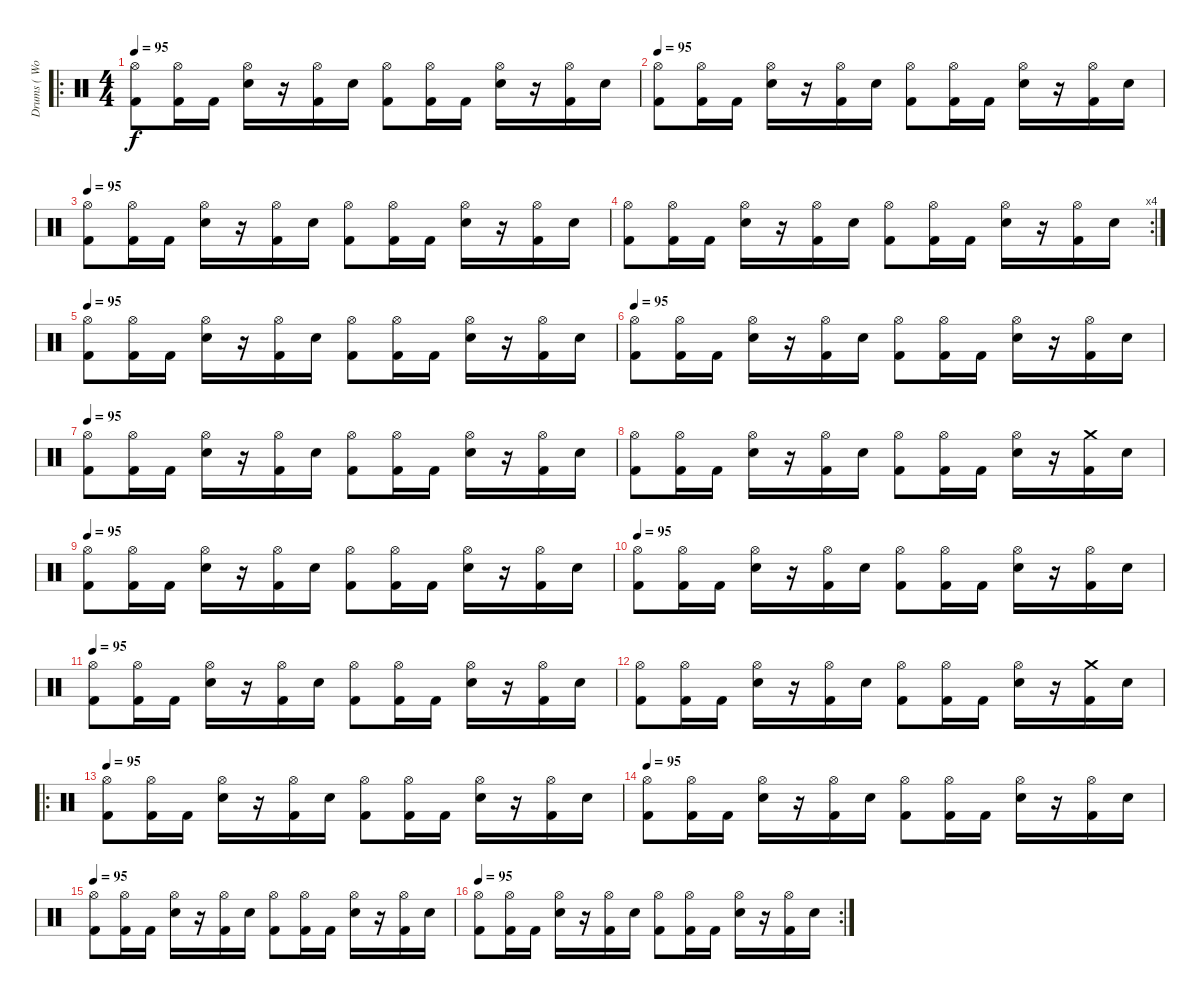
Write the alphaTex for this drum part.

\track ("Drums ( Wolf Simons)" "Drums ( Wo") {instrument percussion}
\staff {score}
\articulation defaults
\ro
\ts (4 4)
\tempo 95
\clef neutral
\ks c
("Kick (hit) 2" "Hi-Hat (open)").8{dy f} ("Kick (hit) 2" "Hi-Hat (open)").16 "Kick (hit) 2".16 ("Electric Snare (hit)" "Hi-Hat (open)").16 r.16 ("Kick (hit) 2" "Hi-Hat (open)").16 "Electric Snare (hit)".16 ("Kick (hit) 2" "Hi-Hat (open)").8 ("Kick (hit) 2" "Hi-Hat (open)").16 "Kick (hit) 2".16 ("Electric Snare (hit)" "Hi-Hat (open)").16 r.16 ("Kick (hit) 2" "Hi-Hat (open)").16 "Electric Snare (hit)".16 |
\tempo 95
("Kick (hit) 2" "Hi-Hat (open)").8 ("Kick (hit) 2" "Hi-Hat (open)").16 "Kick (hit) 2".16 ("Electric Snare (hit)" "Hi-Hat (open)").16 r.16 ("Kick (hit) 2" "Hi-Hat (open)").16 "Electric Snare (hit)".16 ("Kick (hit) 2" "Hi-Hat (open)").8 ("Kick (hit) 2" "Hi-Hat (open)").16 "Kick (hit) 2".16 ("Electric Snare (hit)" "Hi-Hat (open)").16 r.16 ("Kick (hit) 2" "Hi-Hat (open)").16 "Electric Snare (hit)".16 |
\tempo 95
("Kick (hit) 2" "Hi-Hat (open)").8 ("Kick (hit) 2" "Hi-Hat (open)").16 "Kick (hit) 2".16 ("Electric Snare (hit)" "Hi-Hat (open)").16 r.16 ("Kick (hit) 2" "Hi-Hat (open)").16 "Electric Snare (hit)".16 ("Kick (hit) 2" "Hi-Hat (open)").8 ("Kick (hit) 2" "Hi-Hat (open)").16 "Kick (hit) 2".16 ("Electric Snare (hit)" "Hi-Hat (open)").16 r.16 ("Kick (hit) 2" "Hi-Hat (open)").16 "Electric Snare (hit)".16 |
\rc 4
("Kick (hit) 2" "Hi-Hat (open)").8 ("Kick (hit) 2" "Hi-Hat (open)").16 "Kick (hit) 2".16 ("Electric Snare (hit)" "Hi-Hat (open)").16 r.16 ("Kick (hit) 2" "Hi-Hat (open)").16 "Electric Snare (hit)".16 ("Kick (hit) 2" "Hi-Hat (open)").8 ("Kick (hit) 2" "Hi-Hat (open)").16 "Kick (hit) 2".16 ("Electric Snare (hit)" "Hi-Hat (open)").16 r.16 ("Kick (hit) 2" "Hi-Hat (open)").16 "Electric Snare (hit)".16 |
\tempo 95
("Kick (hit) 2" "Hi-Hat (open)").8 ("Kick (hit) 2" "Hi-Hat (open)").16 "Kick (hit) 2".16 ("Electric Snare (hit)" "Hi-Hat (open)").16 r.16 ("Kick (hit) 2" "Hi-Hat (open)").16 "Electric Snare (hit)".16 ("Kick (hit) 2" "Hi-Hat (open)").8 ("Kick (hit) 2" "Hi-Hat (open)").16 "Kick (hit) 2".16 ("Electric Snare (hit)" "Hi-Hat (open)").16 r.16 ("Kick (hit) 2" "Hi-Hat (open)").16 "Electric Snare (hit)".16 |
\tempo 95
("Kick (hit) 2" "Hi-Hat (open)").8 ("Kick (hit) 2" "Hi-Hat (open)").16 "Kick (hit) 2".16 ("Electric Snare (hit)" "Hi-Hat (open)").16 r.16 ("Kick (hit) 2" "Hi-Hat (open)").16 "Electric Snare (hit)".16 ("Kick (hit) 2" "Hi-Hat (open)").8 ("Kick (hit) 2" "Hi-Hat (open)").16 "Kick (hit) 2".16 ("Electric Snare (hit)" "Hi-Hat (open)").16 r.16 ("Kick (hit) 2" "Hi-Hat (open)").16 "Electric Snare (hit)".16 |
\tempo 95
("Kick (hit) 2" "Hi-Hat (open)").8 ("Kick (hit) 2" "Hi-Hat (open)").16 "Kick (hit) 2".16 ("Electric Snare (hit)" "Hi-Hat (open)").16 r.16 ("Kick (hit) 2" "Hi-Hat (open)").16 "Electric Snare (hit)".16 ("Kick (hit) 2" "Hi-Hat (open)").8 ("Kick (hit) 2" "Hi-Hat (open)").16 "Kick (hit) 2".16 ("Electric Snare (hit)" "Hi-Hat (open)").16 r.16 ("Kick (hit) 2" "Hi-Hat (open)").16 "Electric Snare (hit)".16 |
("Kick (hit) 2" "Hi-Hat (open)").8 ("Kick (hit) 2" "Hi-Hat (open)").16 "Kick (hit) 2".16 ("Electric Snare (hit)" "Hi-Hat (open)").16 r.16 ("Kick (hit) 2" "Hi-Hat (open)").16 "Electric Snare (hit)".16 ("Kick (hit) 2" "Hi-Hat (open)").8 ("Kick (hit) 2" "Hi-Hat (open)").16 "Kick (hit) 2".16 ("Electric Snare (hit)" "Hi-Hat (open)").16 r.16 ("Kick (hit) 2" "Crash medium (hit)").16 "Electric Snare (hit)".16 |
\tempo 95
("Kick (hit) 2" "Hi-Hat (open)").8 ("Kick (hit) 2" "Hi-Hat (open)").16 "Kick (hit) 2".16 ("Electric Snare (hit)" "Hi-Hat (open)").16 r.16 ("Kick (hit) 2" "Hi-Hat (open)").16 "Electric Snare (hit)".16 ("Kick (hit) 2" "Hi-Hat (open)").8 ("Kick (hit) 2" "Hi-Hat (open)").16 "Kick (hit) 2".16 ("Electric Snare (hit)" "Hi-Hat (open)").16 r.16 ("Kick (hit) 2" "Hi-Hat (open)").16 "Electric Snare (hit)".16 |
\tempo 95
("Kick (hit) 2" "Hi-Hat (open)").8 ("Kick (hit) 2" "Hi-Hat (open)").16 "Kick (hit) 2".16 ("Electric Snare (hit)" "Hi-Hat (open)").16 r.16 ("Kick (hit) 2" "Hi-Hat (open)").16 "Electric Snare (hit)".16 ("Kick (hit) 2" "Hi-Hat (open)").8 ("Kick (hit) 2" "Hi-Hat (open)").16 "Kick (hit) 2".16 ("Electric Snare (hit)" "Hi-Hat (open)").16 r.16 ("Kick (hit) 2" "Hi-Hat (open)").16 "Electric Snare (hit)".16 |
\tempo 95
("Kick (hit) 2" "Hi-Hat (open)").8 ("Kick (hit) 2" "Hi-Hat (open)").16 "Kick (hit) 2".16 ("Electric Snare (hit)" "Hi-Hat (open)").16 r.16 ("Kick (hit) 2" "Hi-Hat (open)").16 "Electric Snare (hit)".16 ("Kick (hit) 2" "Hi-Hat (open)").8 ("Kick (hit) 2" "Hi-Hat (open)").16 "Kick (hit) 2".16 ("Electric Snare (hit)" "Hi-Hat (open)").16 r.16 ("Kick (hit) 2" "Hi-Hat (open)").16 "Electric Snare (hit)".16 |
("Kick (hit) 2" "Hi-Hat (open)").8 ("Kick (hit) 2" "Hi-Hat (open)").16 "Kick (hit) 2".16 ("Electric Snare (hit)" "Hi-Hat (open)").16 r.16 ("Kick (hit) 2" "Hi-Hat (open)").16 "Electric Snare (hit)".16 ("Kick (hit) 2" "Hi-Hat (open)").8 ("Kick (hit) 2" "Hi-Hat (open)").16 "Kick (hit) 2".16 ("Electric Snare (hit)" "Hi-Hat (open)").16 r.16 ("Kick (hit) 2" "Crash medium (hit)").16 "Electric Snare (hit)".16 |
\ro
\tempo 95
("Kick (hit) 2" "Hi-Hat (open)").8 ("Kick (hit) 2" "Hi-Hat (open)").16 "Kick (hit) 2".16 ("Electric Snare (hit)" "Hi-Hat (open)").16 r.16 ("Kick (hit) 2" "Hi-Hat (open)").16 "Electric Snare (hit)".16 ("Kick (hit) 2" "Hi-Hat (open)").8 ("Kick (hit) 2" "Hi-Hat (open)").16 "Kick (hit) 2".16 ("Electric Snare (hit)" "Hi-Hat (open)").16 r.16 ("Kick (hit) 2" "Hi-Hat (open)").16 "Electric Snare (hit)".16 |
\tempo 95
("Kick (hit) 2" "Hi-Hat (open)").8 ("Kick (hit) 2" "Hi-Hat (open)").16 "Kick (hit) 2".16 ("Electric Snare (hit)" "Hi-Hat (open)").16 r.16 ("Kick (hit) 2" "Hi-Hat (open)").16 "Electric Snare (hit)".16 ("Kick (hit) 2" "Hi-Hat (open)").8 ("Kick (hit) 2" "Hi-Hat (open)").16 "Kick (hit) 2".16 ("Electric Snare (hit)" "Hi-Hat (open)").16 r.16 ("Kick (hit) 2" "Hi-Hat (open)").16 "Electric Snare (hit)".16 |
\tempo 95
("Kick (hit) 2" "Hi-Hat (open)").8 ("Kick (hit) 2" "Hi-Hat (open)").16 "Kick (hit) 2".16 ("Electric Snare (hit)" "Hi-Hat (open)").16 r.16 ("Kick (hit) 2" "Hi-Hat (open)").16 "Electric Snare (hit)".16 ("Kick (hit) 2" "Hi-Hat (open)").8 ("Kick (hit) 2" "Hi-Hat (open)").16 "Kick (hit) 2".16 ("Electric Snare (hit)" "Hi-Hat (open)").16 r.16 ("Kick (hit) 2" "Hi-Hat (open)").16 "Electric Snare (hit)".16 |
\rc 2
\tempo 95
("Kick (hit) 2" "Hi-Hat (open)").8 ("Kick (hit) 2" "Hi-Hat (open)").16 "Kick (hit) 2".16 ("Electric Snare (hit)" "Hi-Hat (open)").16 r.16 ("Kick (hit) 2" "Hi-Hat (open)").16 "Electric Snare (hit)".16 ("Kick (hit) 2" "Hi-Hat (open)").8 ("Kick (hit) 2" "Hi-Hat (open)").16 "Kick (hit) 2".16 ("Electric Snare (hit)" "Hi-Hat (open)").16 r.16 ("Kick (hit) 2" "Hi-Hat (open)").16 "Electric Snare (hit)".16
